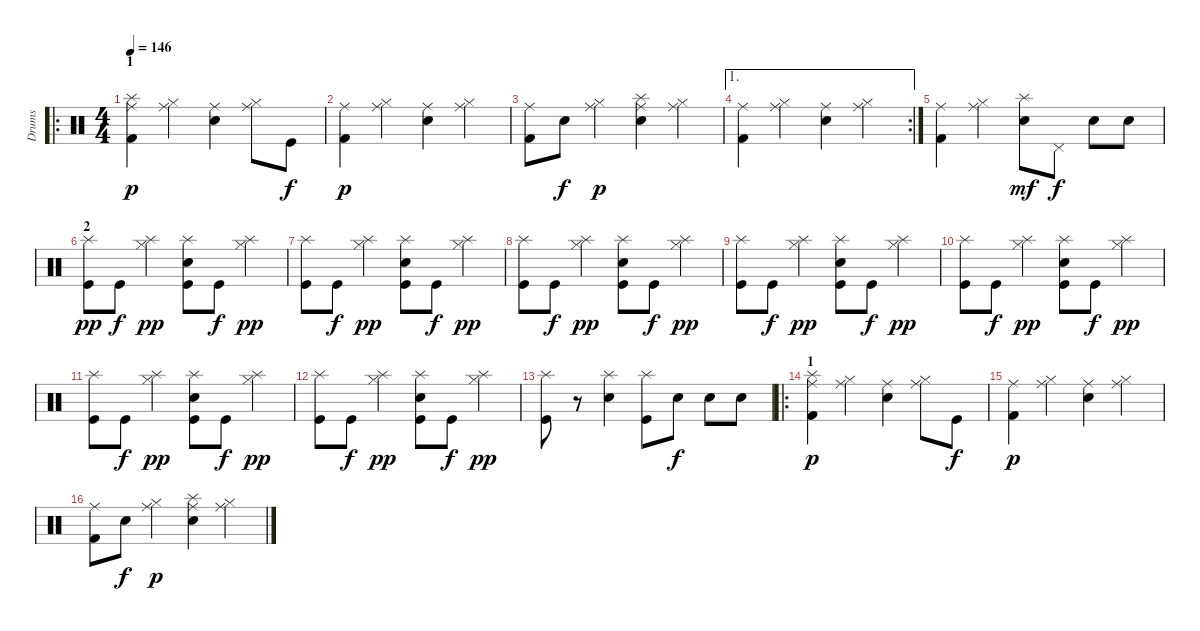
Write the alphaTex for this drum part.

\track ("Drums" "Drums") {instrument percussion}
\staff {score}
\articulation defaults
\ro
\ts (4 4)
\section ("" "1")
\tempo 146
\clef neutral
\ks c
("Kick (hit) 2" "Splash (hit)" "Ride (middle)").4{dy p} ("Hi-Hat (closed)" "Ride (middle)").4 ("Electric Snare (hit)" "Ride (middle)").4 ("Hi-Hat (closed)" "Ride (middle)").8 "Kick (hit)".8{dy f} |
("Kick (hit) 2" "Ride (middle)").4{dy p} ("Hi-Hat (closed)" "Ride (middle)").4 ("Electric Snare (hit)" "Ride (middle)").4 ("Hi-Hat (closed)" "Ride (middle)").4 |
("Kick (hit) 2" "Ride (middle)").8 "Electric Snare (hit)".8{dy f} ("Hi-Hat (closed)" "Ride (middle)").4{dy p} ("Electric Snare (hit)" "Splash (hit)" "Ride (middle)").4 ("Hi-Hat (closed)" "Ride (middle)").4 |
\ae 1
\rc 2
("Kick (hit) 2" "Ride (middle)").4 ("Hi-Hat (closed)" "Ride (middle)").4 ("Electric Snare (hit)" "Ride (middle)").4 ("Hi-Hat (closed)" "Ride (middle)").4 |
("Kick (hit) 2" "Ride (middle)").4 ("Hi-Hat (closed)" "Ride (middle)").4 ("Electric Snare (hit)" "Splash (hit)").8{dy mf} "Pedal Hi-Hat (hit)".8{dy f} "Electric Snare (hit)".8 "Electric Snare (hit)".8 |
\section ("" "2")
("Kick (hit)" "Splash (hit)").8{dy pp} "Kick (hit)".8{dy f} ("Hi-Hat (closed)" "Splash (hit)").4{dy pp} ("Kick (hit)" "Electric Snare (hit)" "Splash (hit)").8 "Kick (hit)".8{dy f} ("Hi-Hat (closed)" "Splash (hit)").4{dy pp} |
("Kick (hit)" "Splash (hit)").8 "Kick (hit)".8{dy f} ("Hi-Hat (closed)" "Splash (hit)").4{dy pp} ("Kick (hit)" "Electric Snare (hit)" "Splash (hit)").8 "Kick (hit)".8{dy f} ("Hi-Hat (closed)" "Splash (hit)").4{dy pp} |
("Kick (hit)" "Splash (hit)").8 "Kick (hit)".8{dy f} ("Hi-Hat (closed)" "Splash (hit)").4{dy pp} ("Kick (hit)" "Electric Snare (hit)" "Splash (hit)").8 "Kick (hit)".8{dy f} ("Hi-Hat (closed)" "Splash (hit)").4{dy pp} |
("Kick (hit)" "Splash (hit)").8 "Kick (hit)".8{dy f} ("Hi-Hat (closed)" "Splash (hit)").4{dy pp} ("Kick (hit)" "Electric Snare (hit)" "Splash (hit)").8 "Kick (hit)".8{dy f} ("Hi-Hat (closed)" "Splash (hit)").4{dy pp} |
("Kick (hit)" "Splash (hit)").8 "Kick (hit)".8{dy f} ("Hi-Hat (closed)" "Splash (hit)").4{dy pp} ("Kick (hit)" "Electric Snare (hit)" "Splash (hit)").8 "Kick (hit)".8{dy f} ("Hi-Hat (closed)" "Splash (hit)").4{dy pp} |
("Kick (hit)" "Splash (hit)").8 "Kick (hit)".8{dy f} ("Hi-Hat (closed)" "Splash (hit)").4{dy pp} ("Kick (hit)" "Electric Snare (hit)" "Splash (hit)").8 "Kick (hit)".8{dy f} ("Hi-Hat (closed)" "Splash (hit)").4{dy pp} |
("Kick (hit)" "Splash (hit)").8 "Kick (hit)".8{dy f} ("Hi-Hat (closed)" "Splash (hit)").4{dy pp} ("Kick (hit)" "Electric Snare (hit)" "Splash (hit)").8 "Kick (hit)".8{dy f} ("Hi-Hat (closed)" "Splash (hit)").4{dy pp} |
("Kick (hit)" "Splash (hit)").8 r.8 ("Electric Snare (hit)" "Splash (hit)").4 ("Kick (hit)" "Splash (hit)").8 "Electric Snare (hit)".8{dy f} "Electric Snare (hit)".8 "Electric Snare (hit)".8 |
\ro
\section ("" "1")
("Kick (hit) 2" "Splash (hit)" "Ride (middle)").4{dy p} ("Hi-Hat (closed)" "Ride (middle)").4 ("Electric Snare (hit)" "Ride (middle)").4 ("Hi-Hat (closed)" "Ride (middle)").8 "Kick (hit)".8{dy f} |
("Kick (hit) 2" "Ride (middle)").4{dy p} ("Hi-Hat (closed)" "Ride (middle)").4 ("Electric Snare (hit)" "Ride (middle)").4 ("Hi-Hat (closed)" "Ride (middle)").4 |
("Kick (hit) 2" "Ride (middle)").8 "Electric Snare (hit)".8{dy f} ("Hi-Hat (closed)" "Ride (middle)").4{dy p} ("Electric Snare (hit)" "Splash (hit)" "Ride (middle)").4 ("Hi-Hat (closed)" "Ride (middle)").4
